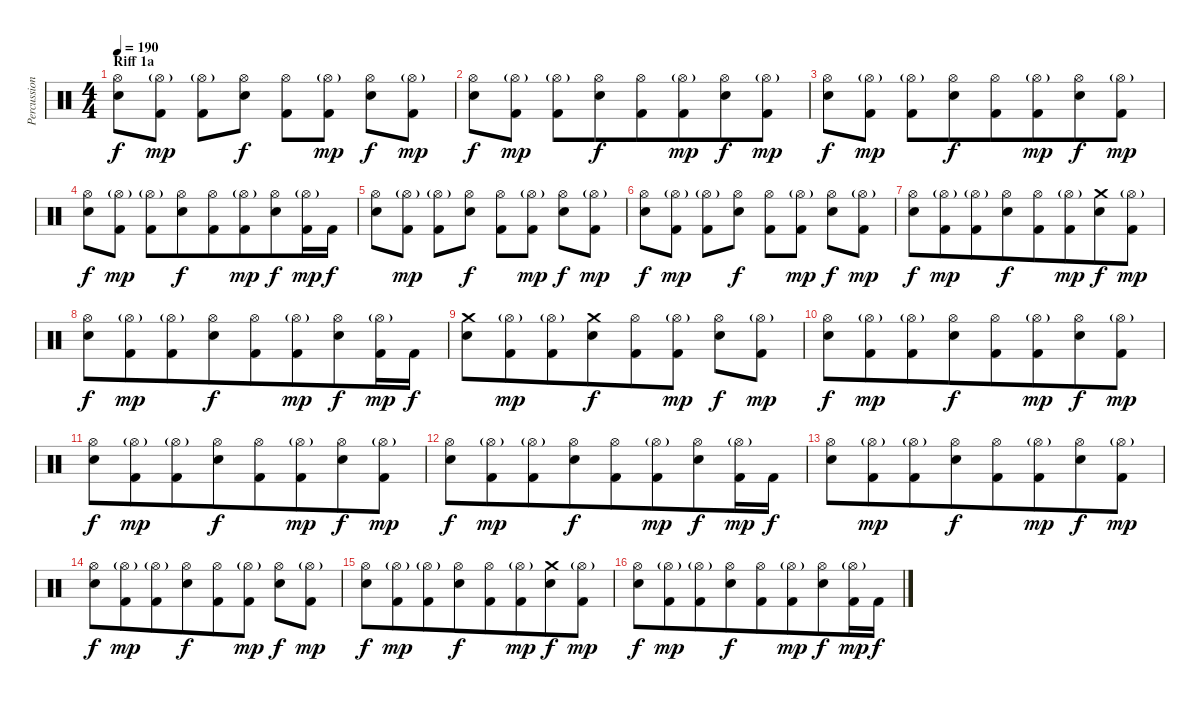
\track ("Percussion" "Percussion") {instrument percussion}
\staff {score}
\articulation defaults
\ts (4 4)
\section ("" "Riff 1a")
\tempo 190
\clef neutral
\ks c
("Hi-Hat (open)" "Electric Snare (hit)").8{dy f} ("Hi-Hat (open)"{g} "Kick (hit) 2").8{dy mp} ("Hi-Hat (open)"{g} "Kick (hit) 2").8 ("Hi-Hat (open)" "Electric Snare (hit)").8{dy f} ("Hi-Hat (open)" "Kick (hit) 2").8 ("Hi-Hat (open)"{g} "Kick (hit) 2").8{dy mp} ("Hi-Hat (open)" "Electric Snare (hit)").8{dy f} ("Hi-Hat (open)"{g} "Kick (hit) 2").8{dy mp} |
("Hi-Hat (open)" "Electric Snare (hit)").8{dy f beam merge} ("Hi-Hat (open)"{g} "Kick (hit) 2").8{dy mp} ("Hi-Hat (open)"{g} "Kick (hit) 2").8{beam merge} ("Hi-Hat (open)" "Electric Snare (hit)").8{dy f beam merge} ("Hi-Hat (open)" "Kick (hit) 2").8 ("Hi-Hat (open)"{g} "Kick (hit) 2").8{dy mp beam merge} ("Hi-Hat (open)" "Electric Snare (hit)").8{dy f beam merge} ("Hi-Hat (open)"{g} "Kick (hit) 2").8{dy mp} |
("Hi-Hat (open)" "Electric Snare (hit)").8{dy f beam merge} ("Hi-Hat (open)"{g} "Kick (hit) 2").8{dy mp} ("Hi-Hat (open)"{g} "Kick (hit) 2").8{beam merge} ("Hi-Hat (open)" "Electric Snare (hit)").8{dy f beam merge} ("Hi-Hat (open)" "Kick (hit) 2").8{beam merge} ("Hi-Hat (open)"{g} "Kick (hit) 2").8{dy mp beam merge} ("Hi-Hat (open)" "Electric Snare (hit)").8{dy f beam merge} ("Hi-Hat (open)"{g} "Kick (hit) 2").8{dy mp} |
("Hi-Hat (open)" "Electric Snare (hit)").8{dy f beam merge} ("Hi-Hat (open)"{g} "Kick (hit) 2").8{dy mp} ("Hi-Hat (open)"{g} "Kick (hit) 2").8{beam merge} ("Hi-Hat (open)" "Electric Snare (hit)").8{dy f beam merge} ("Hi-Hat (open)" "Kick (hit) 2").8 ("Hi-Hat (open)"{g} "Kick (hit) 2").8{dy mp beam merge} ("Hi-Hat (open)" "Electric Snare (hit)").8{dy f beam merge} ("Hi-Hat (open)"{g} "Kick (hit) 2").16{dy mp beam merge} "Kick (hit) 2".16{dy f} |
("Hi-Hat (open)" "Electric Snare (hit)").8 ("Hi-Hat (open)"{g} "Kick (hit) 2").8{dy mp} ("Hi-Hat (open)"{g} "Kick (hit) 2").8 ("Hi-Hat (open)" "Electric Snare (hit)").8{dy f} ("Hi-Hat (open)" "Kick (hit) 2").8{beam merge} ("Hi-Hat (open)"{g} "Kick (hit) 2").8{dy mp} ("Hi-Hat (open)" "Electric Snare (hit)").8{dy f} ("Hi-Hat (open)"{g} "Kick (hit) 2").8{dy mp} |
("Hi-Hat (open)" "Electric Snare (hit)").8{dy f} ("Hi-Hat (open)"{g} "Kick (hit) 2").8{dy mp} ("Hi-Hat (open)"{g} "Kick (hit) 2").8 ("Hi-Hat (open)" "Electric Snare (hit)").8{dy f} ("Hi-Hat (open)" "Kick (hit) 2").8 ("Hi-Hat (open)"{g} "Kick (hit) 2").8{dy mp} ("Hi-Hat (open)" "Electric Snare (hit)").8{dy f} ("Hi-Hat (open)"{g} "Kick (hit) 2").8{dy mp} |
("Hi-Hat (open)" "Electric Snare (hit)").8{dy f} ("Hi-Hat (open)"{g} "Kick (hit) 2").8{dy mp beam merge} ("Hi-Hat (open)"{g} "Kick (hit) 2").8 ("Hi-Hat (open)" "Electric Snare (hit)").8{dy f beam merge} ("Hi-Hat (open)" "Kick (hit) 2").8 ("Hi-Hat (open)"{g} "Kick (hit) 2").8{dy mp beam merge} ("Crash medium (hit)" "Electric Snare (hit)").8{dy f} ("Hi-Hat (open)"{g} "Kick (hit) 2").8{dy mp} |
("Hi-Hat (open)" "Electric Snare (hit)").8{dy f beam merge} ("Hi-Hat (open)"{g} "Kick (hit) 2").8{dy mp beam merge} ("Hi-Hat (open)"{g} "Kick (hit) 2").8{beam merge} ("Hi-Hat (open)" "Electric Snare (hit)").8{dy f beam merge} ("Hi-Hat (open)" "Kick (hit) 2").8{beam merge} ("Hi-Hat (open)"{g} "Kick (hit) 2").8{dy mp beam merge} ("Hi-Hat (open)" "Electric Snare (hit)").8{dy f beam merge} ("Hi-Hat (open)"{g} "Kick (hit) 2").16{dy mp beam merge} "Kick (hit) 2".16{dy f} |
("Crash medium (hit)" "Electric Snare (hit)").8{beam merge} ("Hi-Hat (open)"{g} "Kick (hit) 2").8{dy mp beam merge} ("Hi-Hat (open)"{g} "Kick (hit) 2").8{beam merge} ("Crash medium (hit)" "Electric Snare (hit)").8{dy f beam merge} ("Hi-Hat (open)" "Kick (hit) 2").8{beam merge} ("Hi-Hat (open)"{g} "Kick (hit) 2").8{dy mp} ("Hi-Hat (open)" "Electric Snare (hit)").8{dy f beam merge} ("Hi-Hat (open)"{g} "Kick (hit) 2").8{dy mp} |
("Hi-Hat (open)" "Electric Snare (hit)").8{dy f beam merge} ("Hi-Hat (open)"{g} "Kick (hit) 2").8{dy mp beam merge} ("Hi-Hat (open)"{g} "Kick (hit) 2").8{beam merge} ("Hi-Hat (open)" "Electric Snare (hit)").8{dy f beam merge} ("Hi-Hat (open)" "Kick (hit) 2").8{beam merge} ("Hi-Hat (open)"{g} "Kick (hit) 2").8{dy mp beam merge} ("Hi-Hat (open)" "Electric Snare (hit)").8{dy f beam merge} ("Hi-Hat (open)"{g} "Kick (hit) 2").8{dy mp} |
("Hi-Hat (open)" "Electric Snare (hit)").8{dy f beam merge} ("Hi-Hat (open)"{g} "Kick (hit) 2").8{dy mp beam merge} ("Hi-Hat (open)"{g} "Kick (hit) 2").8{beam merge} ("Hi-Hat (open)" "Electric Snare (hit)").8{dy f beam merge} ("Hi-Hat (open)" "Kick (hit) 2").8{beam merge} ("Hi-Hat (open)"{g} "Kick (hit) 2").8{dy mp beam merge} ("Hi-Hat (open)" "Electric Snare (hit)").8{dy f beam merge} ("Hi-Hat (open)"{g} "Kick (hit) 2").8{dy mp} |
("Hi-Hat (open)" "Electric Snare (hit)").8{dy f beam merge} ("Hi-Hat (open)"{g} "Kick (hit) 2").8{dy mp beam merge} ("Hi-Hat (open)"{g} "Kick (hit) 2").8{beam merge} ("Hi-Hat (open)" "Electric Snare (hit)").8{dy f beam merge} ("Hi-Hat (open)" "Kick (hit) 2").8{beam merge} ("Hi-Hat (open)"{g} "Kick (hit) 2").8{dy mp beam merge} ("Hi-Hat (open)" "Electric Snare (hit)").8{dy f} ("Hi-Hat (open)"{g} "Kick (hit) 2").16{dy mp beam merge} "Kick (hit) 2".16{dy f} |
("Hi-Hat (open)" "Electric Snare (hit)").8{beam merge} ("Hi-Hat (open)"{g} "Kick (hit) 2").8{dy mp beam merge} ("Hi-Hat (open)"{g} "Kick (hit) 2").8{beam merge} ("Hi-Hat (open)" "Electric Snare (hit)").8{dy f beam merge} ("Hi-Hat (open)" "Kick (hit) 2").8{beam merge} ("Hi-Hat (open)"{g} "Kick (hit) 2").8{dy mp beam merge} ("Hi-Hat (open)" "Electric Snare (hit)").8{dy f beam merge} ("Hi-Hat (open)"{g} "Kick (hit) 2").8{dy mp} |
("Hi-Hat (open)" "Electric Snare (hit)").8{dy f beam merge} ("Hi-Hat (open)"{g} "Kick (hit) 2").8{dy mp beam merge} ("Hi-Hat (open)"{g} "Kick (hit) 2").8{beam merge} ("Hi-Hat (open)" "Electric Snare (hit)").8{dy f beam merge} ("Hi-Hat (open)" "Kick (hit) 2").8{beam merge} ("Hi-Hat (open)"{g} "Kick (hit) 2").8{dy mp} ("Hi-Hat (open)" "Electric Snare (hit)").8{dy f beam merge} ("Hi-Hat (open)"{g} "Kick (hit) 2").8{dy mp} |
("Hi-Hat (open)" "Electric Snare (hit)").8{dy f beam merge} ("Hi-Hat (open)"{g} "Kick (hit) 2").8{dy mp beam merge} ("Hi-Hat (open)"{g} "Kick (hit) 2").8{beam merge} ("Hi-Hat (open)" "Electric Snare (hit)").8{dy f beam merge} ("Hi-Hat (open)" "Kick (hit) 2").8{beam merge} ("Hi-Hat (open)"{g} "Kick (hit) 2").8{dy mp beam merge} ("Crash medium (hit)" "Electric Snare (hit)").8{dy f beam merge} ("Hi-Hat (open)"{g} "Kick (hit) 2").8{dy mp} |
("Hi-Hat (open)" "Electric Snare (hit)").8{dy f beam merge} ("Hi-Hat (open)"{g} "Kick (hit) 2").8{dy mp beam merge} ("Hi-Hat (open)"{g} "Kick (hit) 2").8{beam merge} ("Hi-Hat (open)" "Electric Snare (hit)").8{dy f beam merge} ("Hi-Hat (open)" "Kick (hit) 2").8{beam merge} ("Hi-Hat (open)"{g} "Kick (hit) 2").8{dy mp beam merge} ("Hi-Hat (open)" "Electric Snare (hit)").8{dy f beam merge} ("Hi-Hat (open)"{g} "Kick (hit) 2").16{dy mp beam merge} "Kick (hit) 2".16{dy f}
